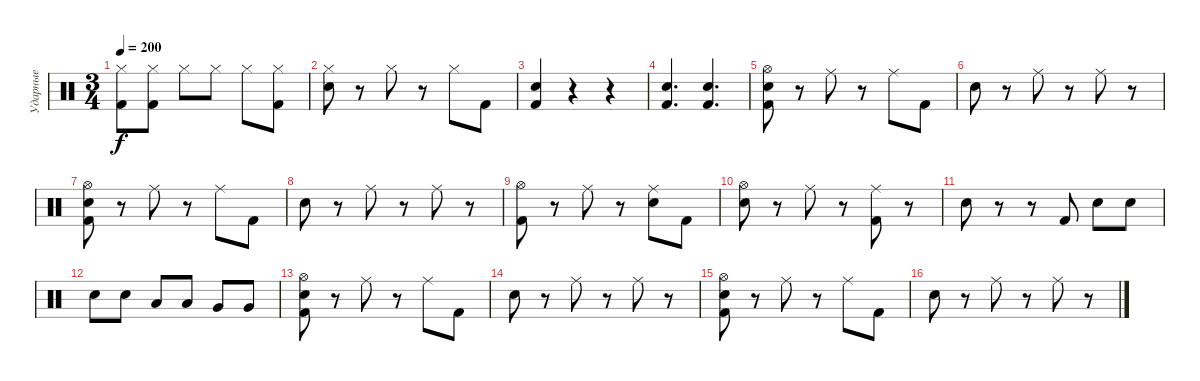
\track ("Ударные" "Ударные") {instrument percussion}
\staff {score}
\articulation defaults
\ts (3 4)
\tempo 200
\clef neutral
\ks c
("Hi-Hat (closed)" "Kick (hit) 2").8{dy f} ("Hi-Hat (closed)" "Kick (hit) 2").8 "Hi-Hat (closed)".8 "Hi-Hat (closed)".8 "Hi-Hat (closed)".8 ("Hi-Hat (closed)" "Kick (hit) 2").8 |
("Hi-Hat (closed)" "Electric Snare (hit)").8 r.8 "Hi-Hat (closed)".8 r.8 "Hi-Hat (closed)".8 "Kick (hit) 2".8 |
("Electric Snare (hit)" "Kick (hit) 2").4 r.4 r.4 |
("Electric Snare (hit)" "Kick (hit) 2").4{d} ("Electric Snare (hit)" "Kick (hit) 2").4{d} |
("Hi-Hat (open)" "Electric Snare (hit)" "Kick (hit) 2").8 r.8 "Ride (middle)".8 r.8 "Ride (middle)".8 "Kick (hit) 2".8 |
"Electric Snare (hit)".8 r.8 "Ride (middle)".8 r.8 "Ride (middle)".8 r.8 |
("Hi-Hat (open)" "Electric Snare (hit)" "Kick (hit) 2").8 r.8 "Ride (middle)".8 r.8 "Ride (middle)".8 "Kick (hit) 2".8 |
"Electric Snare (hit)".8 r.8 "Ride (middle)".8 r.8 "Ride (middle)".8 r.8 |
("Hi-Hat (open)" "Kick (hit) 2").8 r.8 "Ride (middle)".8 r.8 ("Ride (middle)" "Electric Snare (hit)").8 "Kick (hit) 2".8 |
("Hi-Hat (open)" "Electric Snare (hit)").8 r.8 "Ride (middle)".8 r.8 ("Ride (middle)" "Kick (hit) 2").8 r.8 |
"Electric Snare (hit)".8 r.8 r.8 "Kick (hit) 2".8 "Electric Snare (hit)".8 "Electric Snare (hit)".8 |
"Electric Snare (hit)".8 "Electric Snare (hit)".8 "Low Tom (hit)".8 "Low Tom (hit)".8 "Very Low Tom (hit)".8 "Very Low Tom (hit)".8 |
("Hi-Hat (open)" "Electric Snare (hit)" "Kick (hit) 2").8 r.8 "Ride (middle)".8 r.8 "Ride (middle)".8 "Kick (hit) 2".8 |
"Electric Snare (hit)".8 r.8 "Ride (middle)".8 r.8 "Ride (middle)".8 r.8 |
("Hi-Hat (open)" "Electric Snare (hit)" "Kick (hit) 2").8 r.8 "Ride (middle)".8 r.8 "Ride (middle)".8 "Kick (hit) 2".8 |
"Electric Snare (hit)".8 r.8 "Ride (middle)".8 r.8 "Ride (middle)".8 r.8
